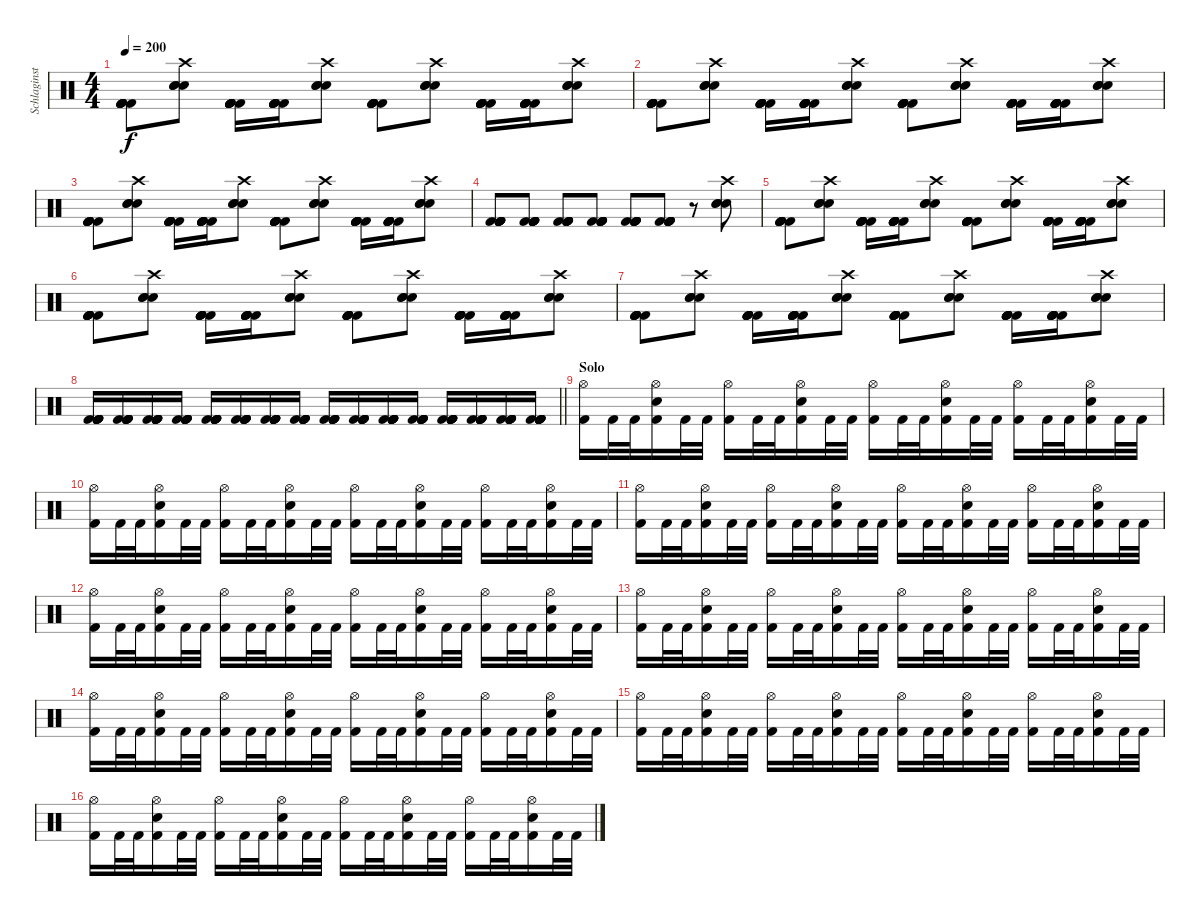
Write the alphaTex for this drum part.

\track ("Schlaginstrumente - Auswahl" "Schlaginst") {instrument percussion}
\staff {score}
\articulation defaults
\ts (4 4)
\tempo 200
\clef neutral
\ks c
("Kick (hit) 2" "Kick (hit) 2" "Kick (hit) 2" "Kick (hit) 2" "Kick (hit) 2" "Kick (hit) 2").8{dy f} ("Electric Snare (hit)" "Electric Snare (hit)" "Electric Snare (hit)" "Crash high (hit)").8 ("Kick (hit) 2" "Kick (hit) 2" "Kick (hit) 2" "Kick (hit) 2" "Kick (hit) 2" "Kick (hit) 2").16 ("Kick (hit) 2" "Kick (hit) 2" "Kick (hit) 2" "Kick (hit) 2" "Kick (hit) 2" "Kick (hit) 2").16 ("Electric Snare (hit)" "Electric Snare (hit)" "Electric Snare (hit)" "Crash high (hit)").8 ("Kick (hit) 2" "Kick (hit) 2" "Kick (hit) 2" "Kick (hit) 2" "Kick (hit) 2" "Kick (hit) 2").8 ("Electric Snare (hit)" "Electric Snare (hit)" "Electric Snare (hit)" "Crash high (hit)").8 ("Kick (hit) 2" "Kick (hit) 2" "Kick (hit) 2" "Kick (hit) 2" "Kick (hit) 2" "Kick (hit) 2").16 ("Kick (hit) 2" "Kick (hit) 2" "Kick (hit) 2" "Kick (hit) 2" "Kick (hit) 2" "Kick (hit) 2").16 ("Electric Snare (hit)" "Electric Snare (hit)" "Electric Snare (hit)" "Crash high (hit)").8 |
("Kick (hit) 2" "Kick (hit) 2" "Kick (hit) 2" "Kick (hit) 2" "Kick (hit) 2" "Kick (hit) 2").8 ("Electric Snare (hit)" "Electric Snare (hit)" "Electric Snare (hit)" "Crash high (hit)").8 ("Kick (hit) 2" "Kick (hit) 2" "Kick (hit) 2" "Kick (hit) 2" "Kick (hit) 2" "Kick (hit) 2").16 ("Kick (hit) 2" "Kick (hit) 2" "Kick (hit) 2" "Kick (hit) 2" "Kick (hit) 2" "Kick (hit) 2").16 ("Electric Snare (hit)" "Electric Snare (hit)" "Electric Snare (hit)" "Crash high (hit)").8 ("Kick (hit) 2" "Kick (hit) 2" "Kick (hit) 2" "Kick (hit) 2" "Kick (hit) 2" "Kick (hit) 2").8 ("Electric Snare (hit)" "Electric Snare (hit)" "Electric Snare (hit)" "Crash high (hit)").8 ("Kick (hit) 2" "Kick (hit) 2" "Kick (hit) 2" "Kick (hit) 2" "Kick (hit) 2" "Kick (hit) 2").16 ("Kick (hit) 2" "Kick (hit) 2" "Kick (hit) 2" "Kick (hit) 2" "Kick (hit) 2" "Kick (hit) 2").16 ("Electric Snare (hit)" "Electric Snare (hit)" "Electric Snare (hit)" "Crash high (hit)").8 |
("Kick (hit) 2" "Kick (hit) 2" "Kick (hit) 2" "Kick (hit) 2" "Kick (hit) 2" "Kick (hit) 2").8 ("Electric Snare (hit)" "Electric Snare (hit)" "Electric Snare (hit)" "Crash high (hit)").8 ("Kick (hit) 2" "Kick (hit) 2" "Kick (hit) 2" "Kick (hit) 2" "Kick (hit) 2" "Kick (hit) 2").16 ("Kick (hit) 2" "Kick (hit) 2" "Kick (hit) 2" "Kick (hit) 2" "Kick (hit) 2" "Kick (hit) 2").16 ("Electric Snare (hit)" "Electric Snare (hit)" "Electric Snare (hit)" "Crash high (hit)").8 ("Kick (hit) 2" "Kick (hit) 2" "Kick (hit) 2" "Kick (hit) 2" "Kick (hit) 2" "Kick (hit) 2").8 ("Electric Snare (hit)" "Electric Snare (hit)" "Electric Snare (hit)" "Crash high (hit)").8 ("Kick (hit) 2" "Kick (hit) 2" "Kick (hit) 2" "Kick (hit) 2" "Kick (hit) 2" "Kick (hit) 2").16 ("Kick (hit) 2" "Kick (hit) 2" "Kick (hit) 2" "Kick (hit) 2" "Kick (hit) 2" "Kick (hit) 2").16 ("Electric Snare (hit)" "Electric Snare (hit)" "Electric Snare (hit)" "Crash high (hit)").8 |
("Kick (hit) 2" "Kick (hit) 2" "Kick (hit) 2" "Kick (hit) 2" "Kick (hit) 2" "Kick (hit) 2").8 ("Kick (hit) 2" "Kick (hit) 2" "Kick (hit) 2" "Kick (hit) 2" "Kick (hit) 2" "Kick (hit) 2").8 ("Kick (hit) 2" "Kick (hit) 2" "Kick (hit) 2" "Kick (hit) 2" "Kick (hit) 2" "Kick (hit) 2").8 ("Kick (hit) 2" "Kick (hit) 2" "Kick (hit) 2" "Kick (hit) 2" "Kick (hit) 2" "Kick (hit) 2").8 ("Kick (hit) 2" "Kick (hit) 2" "Kick (hit) 2" "Kick (hit) 2" "Kick (hit) 2" "Kick (hit) 2").8 ("Kick (hit) 2" "Kick (hit) 2" "Kick (hit) 2" "Kick (hit) 2" "Kick (hit) 2" "Kick (hit) 2").8 r.8 ("Electric Snare (hit)" "Electric Snare (hit)" "Electric Snare (hit)" "Crash high (hit)").8 |
("Kick (hit) 2" "Kick (hit) 2" "Kick (hit) 2" "Kick (hit) 2" "Kick (hit) 2" "Kick (hit) 2").8 ("Electric Snare (hit)" "Electric Snare (hit)" "Electric Snare (hit)" "Crash high (hit)").8 ("Kick (hit) 2" "Kick (hit) 2" "Kick (hit) 2" "Kick (hit) 2" "Kick (hit) 2" "Kick (hit) 2").16 ("Kick (hit) 2" "Kick (hit) 2" "Kick (hit) 2" "Kick (hit) 2" "Kick (hit) 2" "Kick (hit) 2").16 ("Electric Snare (hit)" "Electric Snare (hit)" "Electric Snare (hit)" "Crash high (hit)").8 ("Kick (hit) 2" "Kick (hit) 2" "Kick (hit) 2" "Kick (hit) 2" "Kick (hit) 2" "Kick (hit) 2").8 ("Electric Snare (hit)" "Electric Snare (hit)" "Electric Snare (hit)" "Crash high (hit)").8 ("Kick (hit) 2" "Kick (hit) 2" "Kick (hit) 2" "Kick (hit) 2" "Kick (hit) 2" "Kick (hit) 2").16 ("Kick (hit) 2" "Kick (hit) 2" "Kick (hit) 2" "Kick (hit) 2" "Kick (hit) 2" "Kick (hit) 2").16 ("Electric Snare (hit)" "Electric Snare (hit)" "Electric Snare (hit)" "Crash high (hit)").8 |
("Kick (hit) 2" "Kick (hit) 2" "Kick (hit) 2" "Kick (hit) 2" "Kick (hit) 2" "Kick (hit) 2").8 ("Electric Snare (hit)" "Electric Snare (hit)" "Electric Snare (hit)" "Crash high (hit)").8 ("Kick (hit) 2" "Kick (hit) 2" "Kick (hit) 2" "Kick (hit) 2" "Kick (hit) 2" "Kick (hit) 2").16 ("Kick (hit) 2" "Kick (hit) 2" "Kick (hit) 2" "Kick (hit) 2" "Kick (hit) 2" "Kick (hit) 2").16 ("Electric Snare (hit)" "Electric Snare (hit)" "Electric Snare (hit)" "Crash high (hit)").8 ("Kick (hit) 2" "Kick (hit) 2" "Kick (hit) 2" "Kick (hit) 2" "Kick (hit) 2" "Kick (hit) 2").8 ("Electric Snare (hit)" "Electric Snare (hit)" "Electric Snare (hit)" "Crash high (hit)").8 ("Kick (hit) 2" "Kick (hit) 2" "Kick (hit) 2" "Kick (hit) 2" "Kick (hit) 2" "Kick (hit) 2").16 ("Kick (hit) 2" "Kick (hit) 2" "Kick (hit) 2" "Kick (hit) 2" "Kick (hit) 2" "Kick (hit) 2").16 ("Electric Snare (hit)" "Electric Snare (hit)" "Electric Snare (hit)" "Crash high (hit)").8 |
("Kick (hit) 2" "Kick (hit) 2" "Kick (hit) 2" "Kick (hit) 2" "Kick (hit) 2" "Kick (hit) 2").8 ("Electric Snare (hit)" "Electric Snare (hit)" "Electric Snare (hit)" "Crash high (hit)").8 ("Kick (hit) 2" "Kick (hit) 2" "Kick (hit) 2" "Kick (hit) 2" "Kick (hit) 2" "Kick (hit) 2").16 ("Kick (hit) 2" "Kick (hit) 2" "Kick (hit) 2" "Kick (hit) 2" "Kick (hit) 2" "Kick (hit) 2").16 ("Electric Snare (hit)" "Electric Snare (hit)" "Electric Snare (hit)" "Crash high (hit)").8 ("Kick (hit) 2" "Kick (hit) 2" "Kick (hit) 2" "Kick (hit) 2" "Kick (hit) 2" "Kick (hit) 2").8 ("Electric Snare (hit)" "Electric Snare (hit)" "Electric Snare (hit)" "Crash high (hit)").8 ("Kick (hit) 2" "Kick (hit) 2" "Kick (hit) 2" "Kick (hit) 2" "Kick (hit) 2" "Kick (hit) 2").16 ("Kick (hit) 2" "Kick (hit) 2" "Kick (hit) 2" "Kick (hit) 2" "Kick (hit) 2" "Kick (hit) 2").16 ("Electric Snare (hit)" "Electric Snare (hit)" "Electric Snare (hit)" "Crash high (hit)").8 |
\barLineRight lightlight
("Kick (hit) 2" "Kick (hit) 2" "Kick (hit) 2" "Kick (hit) 2" "Kick (hit) 2" "Kick (hit) 2").16 ("Kick (hit) 2" "Kick (hit) 2" "Kick (hit) 2" "Kick (hit) 2" "Kick (hit) 2" "Kick (hit) 2").16 ("Kick (hit) 2" "Kick (hit) 2" "Kick (hit) 2" "Kick (hit) 2" "Kick (hit) 2" "Kick (hit) 2").16 ("Kick (hit) 2" "Kick (hit) 2" "Kick (hit) 2" "Kick (hit) 2" "Kick (hit) 2" "Kick (hit) 2").16 ("Kick (hit) 2" "Kick (hit) 2" "Kick (hit) 2" "Kick (hit) 2" "Kick (hit) 2" "Kick (hit) 2").16 ("Kick (hit) 2" "Kick (hit) 2" "Kick (hit) 2" "Kick (hit) 2" "Kick (hit) 2" "Kick (hit) 2").16 ("Kick (hit) 2" "Kick (hit) 2" "Kick (hit) 2" "Kick (hit) 2" "Kick (hit) 2" "Kick (hit) 2").16 ("Kick (hit) 2" "Kick (hit) 2" "Kick (hit) 2" "Kick (hit) 2" "Kick (hit) 2" "Kick (hit) 2").16 ("Kick (hit) 2" "Kick (hit) 2" "Kick (hit) 2" "Kick (hit) 2" "Kick (hit) 2" "Kick (hit) 2").16 ("Kick (hit) 2" "Kick (hit) 2" "Kick (hit) 2" "Kick (hit) 2" "Kick (hit) 2" "Kick (hit) 2").16 ("Kick (hit) 2" "Kick (hit) 2" "Kick (hit) 2" "Kick (hit) 2" "Kick (hit) 2" "Kick (hit) 2").16 ("Kick (hit) 2" "Kick (hit) 2" "Kick (hit) 2" "Kick (hit) 2" "Kick (hit) 2" "Kick (hit) 2").16 ("Kick (hit) 2" "Kick (hit) 2" "Kick (hit) 2" "Kick (hit) 2" "Kick (hit) 2" "Kick (hit) 2").16 ("Kick (hit) 2" "Kick (hit) 2" "Kick (hit) 2" "Kick (hit) 2" "Kick (hit) 2" "Kick (hit) 2").16 ("Kick (hit) 2" "Kick (hit) 2" "Kick (hit) 2" "Kick (hit) 2" "Kick (hit) 2" "Kick (hit) 2").16 ("Kick (hit) 2" "Kick (hit) 2" "Kick (hit) 2" "Kick (hit) 2" "Kick (hit) 2" "Kick (hit) 2").16 |
\section ("" "Solo")
("Hi-Hat (open)" "Kick (hit) 2").16 "Kick (hit) 2".32 "Kick (hit) 2".32 ("Hi-Hat (open)" "Electric Snare (hit)" "Kick (hit) 2").16 "Kick (hit) 2".32 "Kick (hit) 2".32 ("Hi-Hat (open)" "Kick (hit) 2").16 "Kick (hit) 2".32 "Kick (hit) 2".32 ("Hi-Hat (open)" "Electric Snare (hit)" "Kick (hit) 2").16 "Kick (hit) 2".32 "Kick (hit) 2".32 ("Hi-Hat (open)" "Kick (hit) 2").16 "Kick (hit) 2".32 "Kick (hit) 2".32 ("Hi-Hat (open)" "Electric Snare (hit)" "Kick (hit) 2").16 "Kick (hit) 2".32 "Kick (hit) 2".32 ("Hi-Hat (open)" "Kick (hit) 2").16 "Kick (hit) 2".32 "Kick (hit) 2".32 ("Hi-Hat (open)" "Electric Snare (hit)" "Kick (hit) 2").16 "Kick (hit) 2".32 "Kick (hit) 2".32 |
("Hi-Hat (open)" "Kick (hit) 2").16 "Kick (hit) 2".32 "Kick (hit) 2".32 ("Hi-Hat (open)" "Electric Snare (hit)" "Kick (hit) 2").16 "Kick (hit) 2".32 "Kick (hit) 2".32 ("Hi-Hat (open)" "Kick (hit) 2").16 "Kick (hit) 2".32 "Kick (hit) 2".32 ("Hi-Hat (open)" "Electric Snare (hit)" "Kick (hit) 2").16 "Kick (hit) 2".32 "Kick (hit) 2".32 ("Hi-Hat (open)" "Kick (hit) 2").16 "Kick (hit) 2".32 "Kick (hit) 2".32 ("Hi-Hat (open)" "Electric Snare (hit)" "Kick (hit) 2").16 "Kick (hit) 2".32 "Kick (hit) 2".32 ("Hi-Hat (open)" "Kick (hit) 2").16 "Kick (hit) 2".32 "Kick (hit) 2".32 ("Hi-Hat (open)" "Electric Snare (hit)" "Kick (hit) 2").16 "Kick (hit) 2".32 "Kick (hit) 2".32 |
("Hi-Hat (open)" "Kick (hit) 2").16 "Kick (hit) 2".32 "Kick (hit) 2".32 ("Hi-Hat (open)" "Electric Snare (hit)" "Kick (hit) 2").16 "Kick (hit) 2".32 "Kick (hit) 2".32 ("Hi-Hat (open)" "Kick (hit) 2").16 "Kick (hit) 2".32 "Kick (hit) 2".32 ("Hi-Hat (open)" "Electric Snare (hit)" "Kick (hit) 2").16 "Kick (hit) 2".32 "Kick (hit) 2".32 ("Hi-Hat (open)" "Kick (hit) 2").16 "Kick (hit) 2".32 "Kick (hit) 2".32 ("Hi-Hat (open)" "Electric Snare (hit)" "Kick (hit) 2").16 "Kick (hit) 2".32 "Kick (hit) 2".32 ("Hi-Hat (open)" "Kick (hit) 2").16 "Kick (hit) 2".32 "Kick (hit) 2".32 ("Hi-Hat (open)" "Electric Snare (hit)" "Kick (hit) 2").16 "Kick (hit) 2".32 "Kick (hit) 2".32 |
("Hi-Hat (open)" "Kick (hit) 2").16 "Kick (hit) 2".32 "Kick (hit) 2".32 ("Hi-Hat (open)" "Electric Snare (hit)" "Kick (hit) 2").16 "Kick (hit) 2".32 "Kick (hit) 2".32 ("Hi-Hat (open)" "Kick (hit) 2").16 "Kick (hit) 2".32 "Kick (hit) 2".32 ("Hi-Hat (open)" "Electric Snare (hit)" "Kick (hit) 2").16 "Kick (hit) 2".32 "Kick (hit) 2".32 ("Hi-Hat (open)" "Kick (hit) 2").16 "Kick (hit) 2".32 "Kick (hit) 2".32 ("Hi-Hat (open)" "Electric Snare (hit)" "Kick (hit) 2").16 "Kick (hit) 2".32 "Kick (hit) 2".32 ("Hi-Hat (open)" "Kick (hit) 2").16 "Kick (hit) 2".32 "Kick (hit) 2".32 ("Hi-Hat (open)" "Electric Snare (hit)" "Kick (hit) 2").16 "Kick (hit) 2".32 "Kick (hit) 2".32 |
("Hi-Hat (open)" "Kick (hit) 2").16 "Kick (hit) 2".32 "Kick (hit) 2".32 ("Hi-Hat (open)" "Electric Snare (hit)" "Kick (hit) 2").16 "Kick (hit) 2".32 "Kick (hit) 2".32 ("Hi-Hat (open)" "Kick (hit) 2").16 "Kick (hit) 2".32 "Kick (hit) 2".32 ("Hi-Hat (open)" "Electric Snare (hit)" "Kick (hit) 2").16 "Kick (hit) 2".32 "Kick (hit) 2".32 ("Hi-Hat (open)" "Kick (hit) 2").16 "Kick (hit) 2".32 "Kick (hit) 2".32 ("Hi-Hat (open)" "Electric Snare (hit)" "Kick (hit) 2").16 "Kick (hit) 2".32 "Kick (hit) 2".32 ("Hi-Hat (open)" "Kick (hit) 2").16 "Kick (hit) 2".32 "Kick (hit) 2".32 ("Hi-Hat (open)" "Electric Snare (hit)" "Kick (hit) 2").16 "Kick (hit) 2".32 "Kick (hit) 2".32 |
("Hi-Hat (open)" "Kick (hit) 2").16 "Kick (hit) 2".32 "Kick (hit) 2".32 ("Hi-Hat (open)" "Electric Snare (hit)" "Kick (hit) 2").16 "Kick (hit) 2".32 "Kick (hit) 2".32 ("Hi-Hat (open)" "Kick (hit) 2").16 "Kick (hit) 2".32 "Kick (hit) 2".32 ("Hi-Hat (open)" "Electric Snare (hit)" "Kick (hit) 2").16 "Kick (hit) 2".32 "Kick (hit) 2".32 ("Hi-Hat (open)" "Kick (hit) 2").16 "Kick (hit) 2".32 "Kick (hit) 2".32 ("Hi-Hat (open)" "Electric Snare (hit)" "Kick (hit) 2").16 "Kick (hit) 2".32 "Kick (hit) 2".32 ("Hi-Hat (open)" "Kick (hit) 2").16 "Kick (hit) 2".32 "Kick (hit) 2".32 ("Hi-Hat (open)" "Electric Snare (hit)" "Kick (hit) 2").16 "Kick (hit) 2".32 "Kick (hit) 2".32 |
("Hi-Hat (open)" "Kick (hit) 2").16 "Kick (hit) 2".32 "Kick (hit) 2".32 ("Hi-Hat (open)" "Electric Snare (hit)" "Kick (hit) 2").16 "Kick (hit) 2".32 "Kick (hit) 2".32 ("Hi-Hat (open)" "Kick (hit) 2").16 "Kick (hit) 2".32 "Kick (hit) 2".32 ("Hi-Hat (open)" "Electric Snare (hit)" "Kick (hit) 2").16 "Kick (hit) 2".32 "Kick (hit) 2".32 ("Hi-Hat (open)" "Kick (hit) 2").16 "Kick (hit) 2".32 "Kick (hit) 2".32 ("Hi-Hat (open)" "Electric Snare (hit)" "Kick (hit) 2").16 "Kick (hit) 2".32 "Kick (hit) 2".32 ("Hi-Hat (open)" "Kick (hit) 2").16 "Kick (hit) 2".32 "Kick (hit) 2".32 ("Hi-Hat (open)" "Electric Snare (hit)" "Kick (hit) 2").16 "Kick (hit) 2".32 "Kick (hit) 2".32 |
("Hi-Hat (open)" "Kick (hit) 2").16 "Kick (hit) 2".32 "Kick (hit) 2".32 ("Hi-Hat (open)" "Electric Snare (hit)" "Kick (hit) 2").16 "Kick (hit) 2".32 "Kick (hit) 2".32 ("Hi-Hat (open)" "Kick (hit) 2").16 "Kick (hit) 2".32 "Kick (hit) 2".32 ("Hi-Hat (open)" "Electric Snare (hit)" "Kick (hit) 2").16 "Kick (hit) 2".32 "Kick (hit) 2".32 ("Hi-Hat (open)" "Kick (hit) 2").16 "Kick (hit) 2".32 "Kick (hit) 2".32 ("Hi-Hat (open)" "Electric Snare (hit)" "Kick (hit) 2").16 "Kick (hit) 2".32 "Kick (hit) 2".32 ("Hi-Hat (open)" "Kick (hit) 2").16 "Kick (hit) 2".32 "Kick (hit) 2".32 ("Hi-Hat (open)" "Electric Snare (hit)" "Kick (hit) 2").16 "Kick (hit) 2".32 "Kick (hit) 2".32
